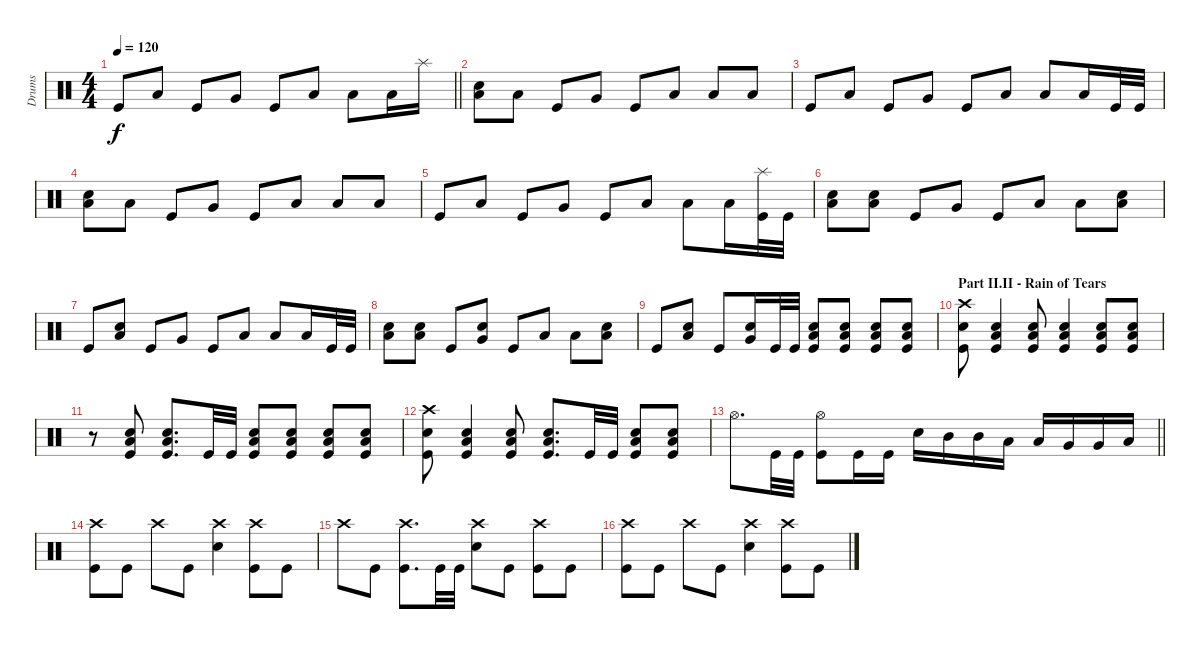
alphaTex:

\track ("Drums" "Drums") {instrument percussion}
\staff
\articulation defaults
\ts (4 4)
\tempo 120
\clef neutral
\barLineRight lightlight
\ks c "Kick (hit)".8{dy f} "Low Tom (hit)".8 "Kick (hit)".8 "Very Low Tom (hit)".8 "Kick (hit)".8 "Low Floor Tom (hit)".8 "Low Floor Tom (hit)".8 "Low Floor Tom (hit)".16 "Splash (hit)".16
|
("Low Tom (hit)" "Electric Snare (hit)").8 "Low Tom (hit)".8 "Kick (hit)".8 "Very Low Tom (hit)".8 "Kick (hit)".8 "Low Floor Tom (hit)".8 "Low Floor Tom (hit)".8 "Low Floor Tom (hit)".8 |
"Kick (hit)".8 "Low Tom (hit)".8 "Kick (hit)".8 "Very Low Tom (hit)".8 "Kick (hit)".8 "Low Floor Tom (hit)".8 "Low Floor Tom (hit)".8 "Low Floor Tom (hit)".16 "Kick (hit)".32 "Kick (hit)".32 |
("Low Tom (hit)" "Electric Snare (hit)").8 "Low Tom (hit)".8 "Kick (hit)".8 "Very Low Tom (hit)".8 "Kick (hit)".8 "Low Floor Tom (hit)".8 "Low Floor Tom (hit)".8 "Low Floor Tom (hit)".8 |
"Kick (hit)".8 "Low Tom (hit)".8 "Kick (hit)".8 "Very Low Tom (hit)".8 "Kick (hit)".8 "Low Floor Tom (hit)".8 "Low Floor Tom (hit)".8 "Low Floor Tom (hit)".16 ("Splash (hit)" "Kick (hit)").32 "Kick (hit)".32 |
("Low Tom (hit)" "Electric Snare (hit)").8 ("Low Tom (hit)" "Electric Snare (hit)").8 "Kick (hit)".8 "Very Low Tom (hit)".8 "Kick (hit)".8 "Low Floor Tom (hit)".8 "Low Floor Tom (hit)".8 ("Electric Snare (hit)" "Low Floor Tom (hit)").8 |
"Kick (hit)".8 ("Low Tom (hit)" "Electric Snare (hit)").8 "Kick (hit)".8 "Very Low Tom (hit)".8 "Kick (hit)".8 "Low Floor Tom (hit)".8 "Low Floor Tom (hit)".8 "Low Floor Tom (hit)".16 "Kick (hit)".32 "Kick (hit)".32 |
("Low Tom (hit)" "Electric Snare (hit)").8 ("Low Tom (hit)" "Electric Snare (hit)").8 "Kick (hit)".8 ("Very Low Tom (hit)" "Electric Snare (hit)").8 "Kick (hit)".8 "Low Floor Tom (hit)".8 "Low Floor Tom (hit)".8 ("Electric Snare (hit)" "Low Floor Tom (hit)").8 |
"Kick (hit)".8 ("Low Tom (hit)" "Electric Snare (hit)").8 "Kick (hit)".8 ("Very Low Tom (hit)" "Electric Snare (hit)").16 "Kick (hit)".32 "Kick (hit)".32 ("Low Floor Tom (hit)" "Electric Snare (hit)" "Kick (hit)").8 ("Low Floor Tom (hit)" "Electric Snare (hit)" "Kick (hit)").8 ("Low Floor Tom (hit)" "Electric Snare (hit)" "Kick (hit)").8 ("Low Floor Tom (hit)" "Electric Snare (hit)" "Kick (hit)").8 |
\section ("" "Part II.II - Rain of Tears")
("Crash high (hit)" "Electric Snare (hit)" "Kick (hit)").8 ("Low Floor Tom (hit)" "Electric Snare (hit)" "Kick (hit)").4 ("Low Floor Tom (hit)" "Electric Snare (hit)" "Kick (hit)").8 ("Low Floor Tom (hit)" "Electric Snare (hit)" "Kick (hit)").4 ("Low Floor Tom (hit)" "Electric Snare (hit)" "Kick (hit)").8 ("Low Floor Tom (hit)" "Electric Snare (hit)" "Kick (hit)").8 |
r.8 ("Low Floor Tom (hit)" "Electric Snare (hit)" "Kick (hit)").8 ("Low Floor Tom (hit)" "Electric Snare (hit)" "Kick (hit)").8{d} "Kick (hit)".32 "Kick (hit)".32 ("Low Floor Tom (hit)" "Electric Snare (hit)" "Kick (hit)").8 ("Low Floor Tom (hit)" "Electric Snare (hit)" "Kick (hit)").8 ("Low Floor Tom (hit)" "Electric Snare (hit)" "Kick (hit)").8 ("Low Floor Tom (hit)" "Electric Snare (hit)" "Kick (hit)").8 |
("Crash high (hit)" "Electric Snare (hit)" "Kick (hit)").8 ("Low Floor Tom (hit)" "Electric Snare (hit)" "Kick (hit)").4 ("Low Floor Tom (hit)" "Electric Snare (hit)" "Kick (hit)").8 ("Low Floor Tom (hit)" "Electric Snare (hit)" "Kick (hit)").8{d} "Kick (hit)".32 "Kick (hit)".32 ("Low Floor Tom (hit)" "Electric Snare (hit)" "Kick (hit)").8 ("Low Floor Tom (hit)" "Electric Snare (hit)" "Kick (hit)").8 |
\barLineRight lightlight "Hi-Hat (open)".8{d} "Kick (hit)".32 "Kick (hit)".32
("Hi-Hat (open)" "Kick (hit)").8 "Kick (hit)".16 "Kick (hit)".16 "Electric Snare (hit)".16 "Mid Tom (hit)".16 "Mid Tom (hit)".16 "Low Tom (hit)".16 "Low Tom (hit)".16 "Very Low Tom (hit)".16 "Very Low Tom (hit)".16 "Low Floor Tom (hit)".16 |
("Crash high (hit)" "Kick (hit)").8 "Kick (hit)".8 "Crash high (hit)".8 "Kick (hit)".8 ("Crash high (hit)" "Electric Snare (hit)").4 ("Crash high (hit)" "Kick (hit)").8 "Kick (hit)".8 |
"Crash high (hit)".8 "Kick (hit)".8 ("Crash high (hit)" "Kick (hit)").8{d} "Kick (hit)".32 "Kick (hit)".32 ("Crash high (hit)" "Electric Snare (hit)").8 "Kick (hit)".8 ("Crash high (hit)" "Kick (hit)").8 "Kick (hit)".8 |
("Crash high (hit)" "Kick (hit)").8 "Kick (hit)".8 "Crash high (hit)".8 "Kick (hit)".8 ("Crash high (hit)" "Electric Snare (hit)").4 ("Crash high (hit)" "Kick (hit)").8 "Kick (hit)".8
